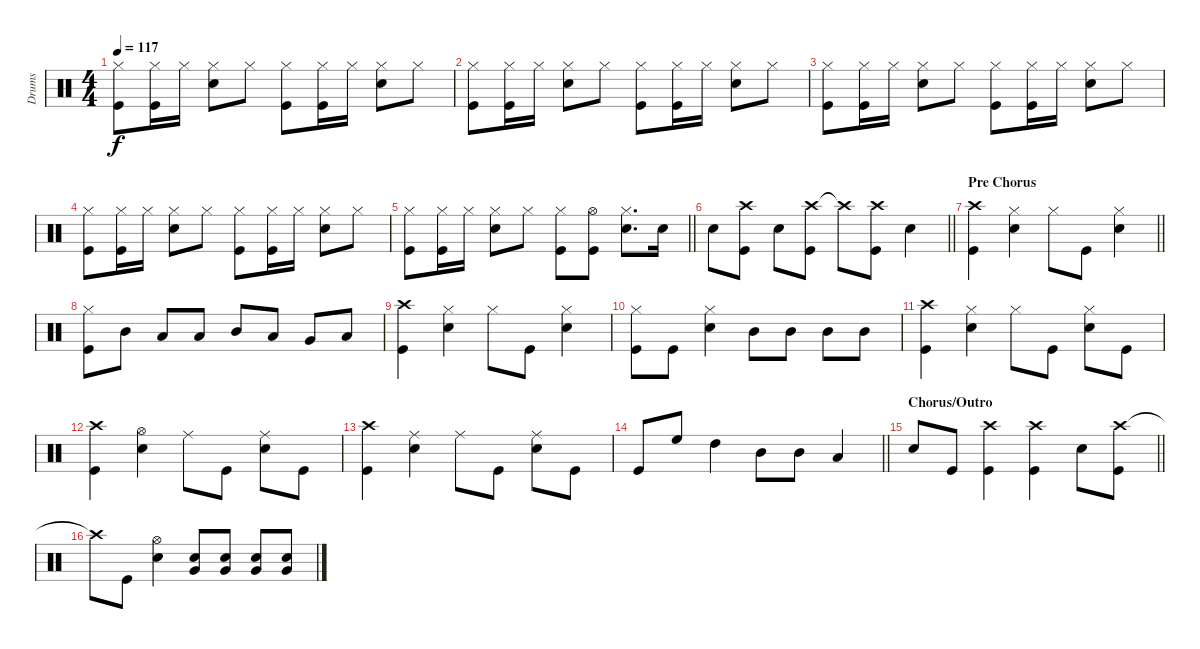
\track ("Drums" "Drums") {instrument percussion}
\staff {score}
\articulation defaults
\ts (4 4)
\tempo 117
\clef neutral
\ks c
("Hi-Hat (closed)" "Kick (hit)").8{dy f} ("Hi-Hat (closed)" "Kick (hit)").16 "Hi-Hat (closed)".16 ("Hi-Hat (closed)" "Snare (hit) 2").8 "Hi-Hat (closed)".8 ("Hi-Hat (closed)" "Kick (hit)").8 ("Hi-Hat (closed)" "Kick (hit)").16 "Hi-Hat (closed)".16 ("Hi-Hat (closed)" "Snare (hit) 2").8 "Hi-Hat (closed)".8 |
("Hi-Hat (closed)" "Kick (hit)").8 ("Hi-Hat (closed)" "Kick (hit)").16 "Hi-Hat (closed)".16 ("Hi-Hat (closed)" "Snare (hit) 2").8 "Hi-Hat (closed)".8 ("Hi-Hat (closed)" "Kick (hit)").8 ("Hi-Hat (closed)" "Kick (hit)").16 "Hi-Hat (closed)".16 ("Hi-Hat (closed)" "Snare (hit) 2").8 "Hi-Hat (closed)".8 |
("Hi-Hat (closed)" "Kick (hit)").8 ("Hi-Hat (closed)" "Kick (hit)").16 "Hi-Hat (closed)".16 ("Hi-Hat (closed)" "Snare (hit) 2").8 "Hi-Hat (closed)".8 ("Hi-Hat (closed)" "Kick (hit)").8 ("Hi-Hat (closed)" "Kick (hit)").16 "Hi-Hat (closed)".16 ("Hi-Hat (closed)" "Snare (hit) 2").8 "Hi-Hat (closed)".8 |
("Hi-Hat (closed)" "Kick (hit)").8 ("Hi-Hat (closed)" "Kick (hit)").16 "Hi-Hat (closed)".16 ("Hi-Hat (closed)" "Snare (hit) 2").8 "Hi-Hat (closed)".8 ("Hi-Hat (closed)" "Kick (hit)").8 ("Hi-Hat (closed)" "Kick (hit)").16 "Hi-Hat (closed)".16 ("Hi-Hat (closed)" "Snare (hit) 2").8 "Hi-Hat (closed)".8 |
\barLineRight lightlight
("Hi-Hat (closed)" "Kick (hit)").8 ("Hi-Hat (closed)" "Kick (hit)").16 "Hi-Hat (closed)".16 ("Hi-Hat (closed)" "Snare (hit) 2").8 "Hi-Hat (closed)".8 ("Hi-Hat (closed)" "Kick (hit)").8 ("Hi-Hat (open)" "Kick (hit)").8 ("Snare (hit) 2" "Hi-Hat (closed)").8{d} "Snare (hit) 2".16 |
\barLineRight lightlight "Snare (hit) 2".8
("Crash high (hit)" "Kick (hit)").8 "Snare (hit) 2".8 ("Crash high (hit)" "Kick (hit)").8 "Crash high (hit)"{t}.8 ("Crash high (hit)" "Kick (hit)").8 "Snare (hit) 2".4 |
\section ("" "Pre Chorus")
\barLineRight lightlight
("Crash high (hit)" "Kick (hit)").4 ("Hi-Hat (closed)" "Snare (hit) 2").4 "Hi-Hat (closed)".8 "Kick (hit)".8 ("Hi-Hat (closed)" "Snare (hit) 2").4 |
("Hi-Hat (closed)" "Kick (hit)").8 "Mid Tom (hit)".8 "Low Floor Tom (hit)".8 "Low Tom (hit)".8 "Mid Tom (hit)".8 "Low Tom (hit)".8 "Very Low Tom (hit)".8 "Low Floor Tom (hit)".8 |
("Crash high (hit)" "Kick (hit)").4 ("Hi-Hat (closed)" "Snare (hit) 2").4 "Hi-Hat (closed)".8 "Kick (hit)".8 ("Hi-Hat (closed)" "Snare (hit) 2").4 |
("Hi-Hat (closed)" "Kick (hit)").8 "Kick (hit)".8 ("Hi-Hat (closed)" "Snare (hit) 2").4 "Mid Tom (hit)".8 "Mid Tom (hit)".8 "Mid Tom (hit)".8 "Mid Tom (hit)".8 |
("Crash high (hit)" "Kick (hit)").4 ("Hi-Hat (closed)" "Snare (hit) 2").4 "Hi-Hat (closed)".8 "Kick (hit)".8 ("Hi-Hat (closed)" "Snare (hit) 2").8 "Kick (hit)".8 |
("Crash high (hit)" "Kick (hit)").4 ("Hi-Hat (open)" "Snare (hit) 2").4 "Ride (middle)".8 "Kick (hit)".8 ("Snare (hit) 2" "Ride (middle)").8 "Kick (hit)".8 |
("Crash high (hit)" "Kick (hit)").4 ("Ride (middle)" "Snare (hit) 2").4 "Ride (middle)".8 "Kick (hit)".8 ("Ride (middle)" "Snare (hit) 2").8 "Kick (hit)".8 |
\barLineRight lightlight "Kick (hit)".8 "High Floor Tom (hit)".8 "High Tom (hit)".4 "Mid Tom (hit)".8 "Mid Tom (hit)".8 "Low Tom (hit)".4
|
\section ("" "Chorus/Outro")
\barLineRight lightlight "Snare (hit) 2".8 "Kick (hit)".8
("Crash high (hit)" "Kick (hit)").4 ("Crash high (hit)" "Kick (hit)").4 "Snare (hit) 2".8 ("Crash high (hit)" "Kick (hit)").8 |
"Crash high (hit)"{t}.8 "Kick (hit)".8 ("Hi-Hat (open)" "Snare (hit) 2").4 ("Snare (hit) 2" "Very Low Tom (hit)").8 ("Snare (hit) 2" "Very Low Tom (hit)").8 ("Snare (hit) 2" "Very Low Tom (hit)").8 ("Snare (hit) 2" "Very Low Tom (hit)").8
